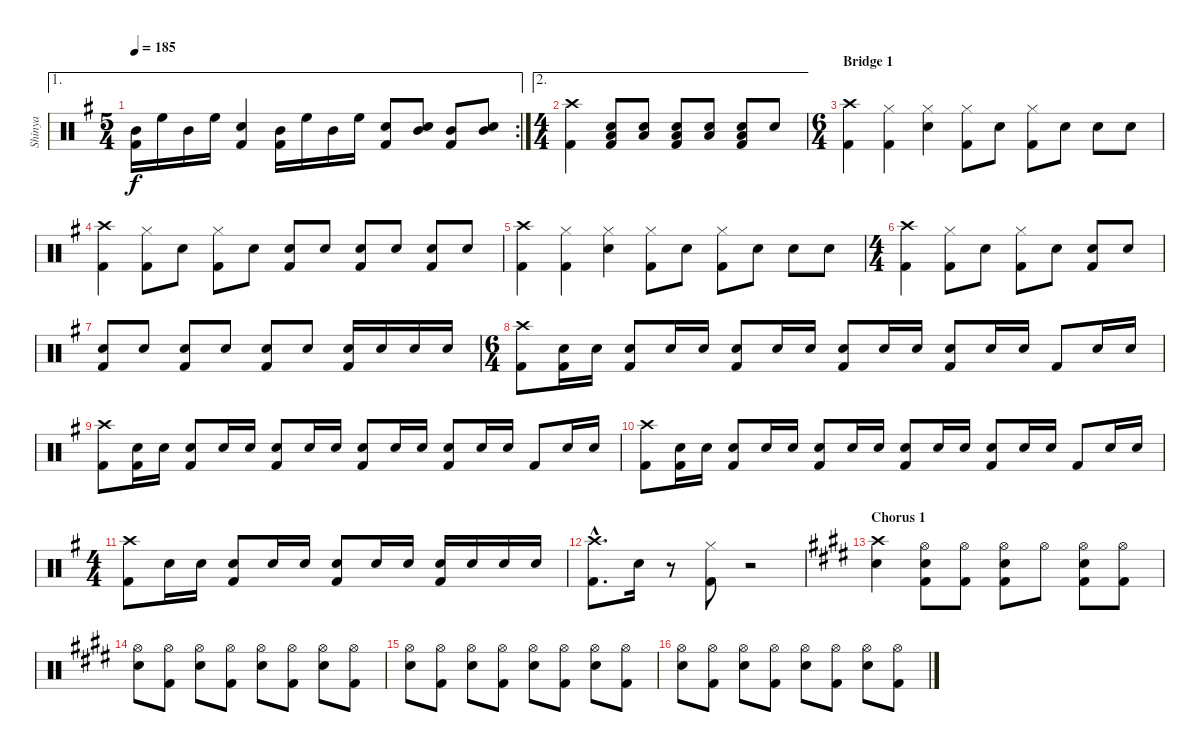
\track ("Shinya" "Shinya") {instrument percussion}
\staff {score}
\articulation defaults
\ae 1
\rc 2
\ts (5 4)
\tempo 185
\clef neutral
\ks g
("Mid Tom (hit)" "Kick (hit) 2").16{dy f} "High Floor Tom (hit)".16 "Mid Tom (hit)".16 "High Floor Tom (hit)".16 ("Snare (hit) 2" "Kick (hit) 2").4 ("Mid Tom (hit)" "Kick (hit) 2").16 "High Floor Tom (hit)".16 "Mid Tom (hit)".16 "High Floor Tom (hit)".16 ("Snare (hit) 2" "Kick (hit) 2").8 ("Mid Tom (hit)" "Snare (hit) 2").8 ("Mid Tom (hit)" "Kick (hit) 2").8 ("Mid Tom (hit)" "Snare (hit) 2").8 |
\ae 2
\ts (4 4)
("Crash high (hit)" "Kick (hit) 2").4 ("Snare (hit) 2" "Low Floor Tom (hit)" "Kick (hit) 2").8 ("Snare (hit) 2" "Low Floor Tom (hit)").8 ("Snare (hit) 2" "Low Floor Tom (hit)" "Kick (hit) 2").8 ("Snare (hit) 2" "Low Floor Tom (hit)").8 ("Snare (hit) 2" "Low Floor Tom (hit)" "Kick (hit) 2").8 "Snare (hit) 2".8 |
\ts (6 4)
\section ("" "Bridge 1")
("Crash high (hit)" "Kick (hit) 2").4 ("Hi-Hat (closed)" "Kick (hit) 2").4 ("Hi-Hat (closed)" "Snare (hit) 2").4 ("Hi-Hat (closed)" "Kick (hit) 2").8 "Snare (hit) 2".8 ("Hi-Hat (closed)" "Kick (hit) 2").8 "Snare (hit) 2".8 "Snare (hit) 2".8 "Snare (hit) 2".8 |
("Crash high (hit)" "Kick (hit) 2").4 ("Hi-Hat (closed)" "Kick (hit) 2").8 "Snare (hit) 2".8 ("Hi-Hat (closed)" "Kick (hit) 2").8 "Snare (hit) 2".8 ("Snare (hit) 2" "Kick (hit) 2").8 "Snare (hit) 2".8 ("Snare (hit) 2" "Kick (hit) 2").8 "Snare (hit) 2".8 ("Snare (hit) 2" "Kick (hit) 2").8 "Snare (hit) 2".8 |
("Crash high (hit)" "Kick (hit) 2").4 ("Hi-Hat (closed)" "Kick (hit) 2").4 ("Hi-Hat (closed)" "Snare (hit) 2").4 ("Hi-Hat (closed)" "Kick (hit) 2").8 "Snare (hit) 2".8 ("Hi-Hat (closed)" "Kick (hit) 2").8 "Snare (hit) 2".8 "Snare (hit) 2".8 "Snare (hit) 2".8 |
\ts (4 4)
("Crash high (hit)" "Kick (hit) 2").4 ("Hi-Hat (closed)" "Kick (hit) 2").8 "Snare (hit) 2".8 ("Hi-Hat (closed)" "Kick (hit) 2").8 "Snare (hit) 2".8 ("Snare (hit) 2" "Kick (hit) 2").8 "Snare (hit) 2".8 |
("Snare (hit) 2" "Kick (hit) 2").8 "Snare (hit) 2".8 ("Snare (hit) 2" "Kick (hit) 2").8 "Snare (hit) 2".8 ("Snare (hit) 2" "Kick (hit) 2").8 "Snare (hit) 2".8 ("Snare (hit) 2" "Kick (hit) 2").16 "Snare (hit) 2".16 "Snare (hit) 2".16 "Snare (hit) 2".16 |
\ts (6 4)
("Crash high (hit)" "Kick (hit) 2").8 ("Snare (hit) 2" "Kick (hit) 2").16 "Snare (hit) 2".16 ("Snare (hit) 2" "Kick (hit) 2").8 "Snare (hit) 2".16 "Snare (hit) 2".16 ("Snare (hit) 2" "Kick (hit) 2").8 "Snare (hit) 2".16 "Snare (hit) 2".16 ("Snare (hit) 2" "Kick (hit) 2").8 "Snare (hit) 2".16 "Snare (hit) 2".16 ("Snare (hit) 2" "Kick (hit) 2").8 "Snare (hit) 2".16 "Snare (hit) 2".16 "Kick (hit) 2".8 "Snare (hit) 2".16 "Snare (hit) 2".16 |
("Crash high (hit)" "Kick (hit) 2").8 ("Snare (hit) 2" "Kick (hit) 2").16 "Snare (hit) 2".16 ("Snare (hit) 2" "Kick (hit) 2").8 "Snare (hit) 2".16 "Snare (hit) 2".16 ("Snare (hit) 2" "Kick (hit) 2").8 "Snare (hit) 2".16 "Snare (hit) 2".16 ("Snare (hit) 2" "Kick (hit) 2").8 "Snare (hit) 2".16 "Snare (hit) 2".16 ("Snare (hit) 2" "Kick (hit) 2").8 "Snare (hit) 2".16 "Snare (hit) 2".16 "Kick (hit) 2".8 "Snare (hit) 2".16 "Snare (hit) 2".16 |
("Crash high (hit)" "Kick (hit) 2").8 ("Snare (hit) 2" "Kick (hit) 2").16 "Snare (hit) 2".16 ("Snare (hit) 2" "Kick (hit) 2").8 "Snare (hit) 2".16 "Snare (hit) 2".16 ("Snare (hit) 2" "Kick (hit) 2").8 "Snare (hit) 2".16 "Snare (hit) 2".16 ("Snare (hit) 2" "Kick (hit) 2").8 "Snare (hit) 2".16 "Snare (hit) 2".16 ("Snare (hit) 2" "Kick (hit) 2").8 "Snare (hit) 2".16 "Snare (hit) 2".16 "Kick (hit) 2".8 "Snare (hit) 2".16 "Snare (hit) 2".16 |
\ts (4 4)
("Crash high (hit)" "Kick (hit) 2").8 "Snare (hit) 2".16 "Snare (hit) 2".16 ("Snare (hit) 2" "Kick (hit) 2").8 "Snare (hit) 2".16 "Snare (hit) 2".16 ("Snare (hit) 2" "Kick (hit) 2").8 "Snare (hit) 2".16 "Snare (hit) 2".16 ("Snare (hit) 2" "Kick (hit) 2").16 "Snare (hit) 2".16 "Snare (hit) 2".16 "Snare (hit) 2".16 |
("Crash high (hit)"{hac} "Kick (hit) 2"{hac}).8{d} "Snare (hit) 2".16 r.8 ("Hi-Hat (closed)" "Kick (hit) 2").8 r.2 |
\section ("" "Chorus 1")
\ks e
("Crash high (hit)" "Snare (hit) 2").4 ("Hi-Hat (open)" "Snare (hit) 2" "Kick (hit) 2").8 ("Hi-Hat (open)" "Kick (hit) 2").8 ("Hi-Hat (open)" "Snare (hit) 2" "Kick (hit) 2").8 "Hi-Hat (open)".8 ("Hi-Hat (open)" "Snare (hit) 2" "Kick (hit) 2").8 ("Hi-Hat (open)" "Kick (hit) 2").8 |
("Hi-Hat (open)" "Snare (hit) 2").8 ("Hi-Hat (open)" "Kick (hit) 2").8 ("Hi-Hat (open)" "Snare (hit) 2").8 ("Hi-Hat (open)" "Kick (hit) 2").8 ("Hi-Hat (open)" "Snare (hit) 2").8 ("Hi-Hat (open)" "Kick (hit) 2").8 ("Hi-Hat (open)" "Snare (hit) 2").8 ("Hi-Hat (open)" "Kick (hit) 2").8 |
("Hi-Hat (open)" "Snare (hit) 2").8 ("Hi-Hat (open)" "Kick (hit) 2").8 ("Hi-Hat (open)" "Snare (hit) 2").8 ("Hi-Hat (open)" "Kick (hit) 2").8 ("Hi-Hat (open)" "Snare (hit) 2").8 ("Hi-Hat (open)" "Kick (hit) 2").8 ("Hi-Hat (open)" "Snare (hit) 2").8 ("Hi-Hat (open)" "Kick (hit) 2").8 |
("Hi-Hat (open)" "Snare (hit) 2").8 ("Hi-Hat (open)" "Kick (hit) 2").8 ("Hi-Hat (open)" "Snare (hit) 2").8 ("Hi-Hat (open)" "Kick (hit) 2").8 ("Hi-Hat (open)" "Snare (hit) 2").8 ("Hi-Hat (open)" "Kick (hit) 2").8 ("Hi-Hat (open)" "Snare (hit) 2").8 ("Hi-Hat (open)" "Kick (hit) 2").8
